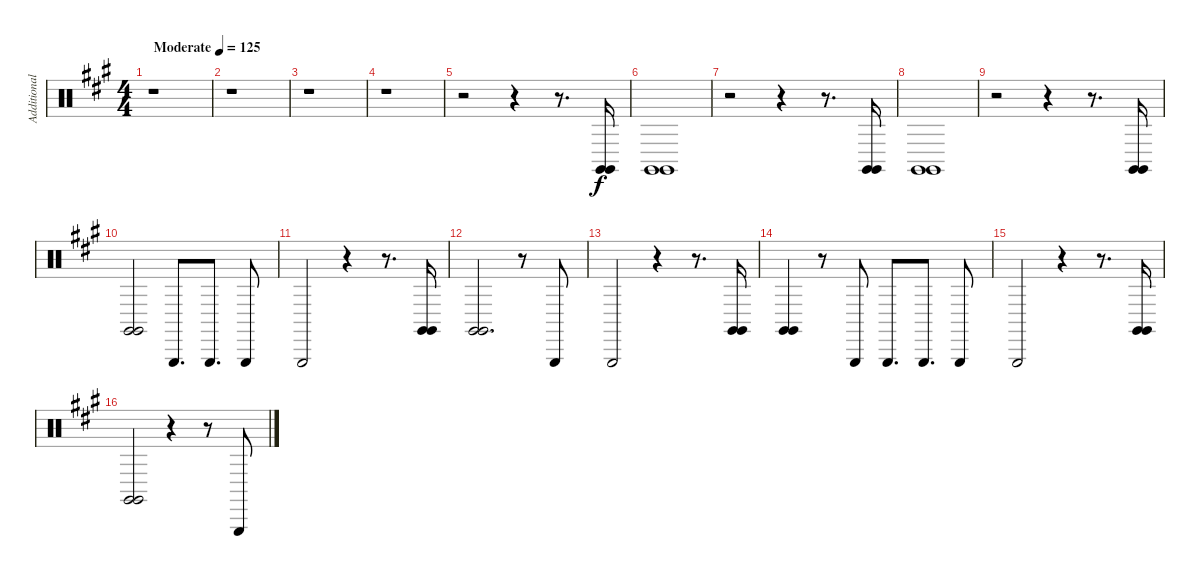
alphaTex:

\track ("Additional Percussion II" "Additional") {instrument percussion}
\staff {score}
\articulation defaults
\ts (4 4)
\tempo (125 "Moderate")
\clef neutral
\ks a
r.1{dy f} |
r.1 |
r.1 |
r.1 |
r.2 r.4 r.8{d} ("Claves (hit)" "Claves (hit)").16 |
("Claves (hit)" "Claves (hit)").1 |
r.2 r.4 r.8{d} ("Claves (hit)" "Claves (hit)").16 |
("Claves (hit)" "Claves (hit)").1 |
r.2 r.4 r.8{d} ("Claves (hit)" "Claves (hit)").16 |
("Claves (hit)" "Claves (hit)").2 "Triangle (hit)".8{d} "Triangle (hit)".8{d} "Triangle (hit)".8 |
"Triangle (hit)".2 r.4 r.8{d} ("Claves (hit)" "Claves (hit)").16 |
("Claves (hit)" "Claves (hit)").2{d} r.8 "Triangle (hit)".8 |
"Triangle (hit)".2 r.4 r.8{d} ("Claves (hit)" "Claves (hit)").16 |
("Claves (hit)" "Claves (hit)").4 r.8 "Triangle (hit)".8 "Triangle (hit)".8{d} "Triangle (hit)".8{d} "Triangle (hit)".8 |
"Triangle (hit)".2 r.4 r.8{d} ("Claves (hit)" "Claves (hit)").16 |
("Claves (hit)" "Claves (hit)").2 r.4 r.8 "Triangle (hit)".8
